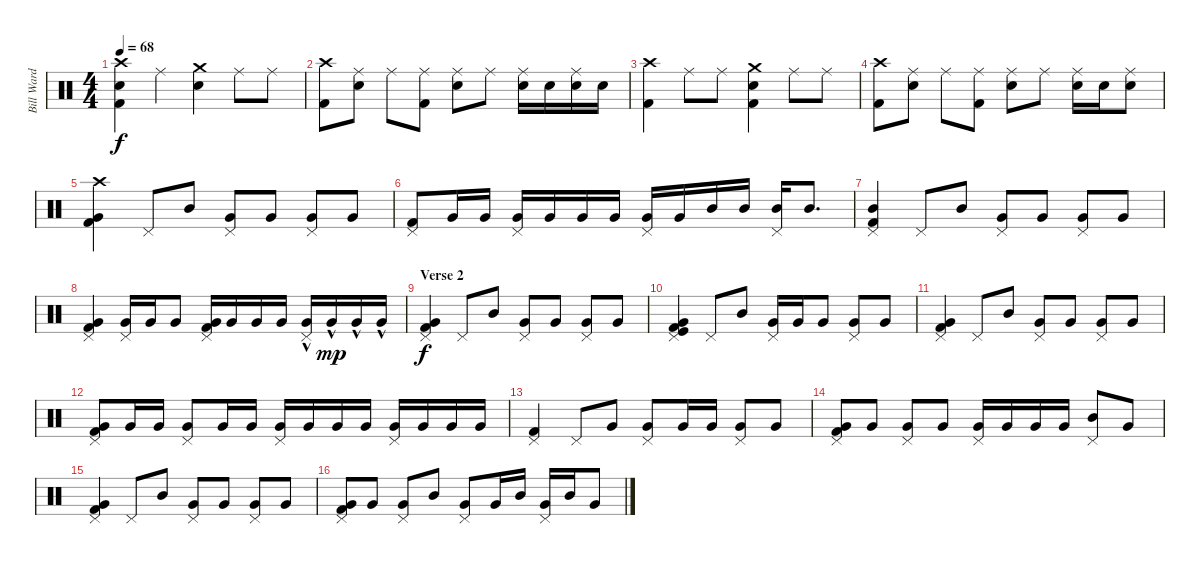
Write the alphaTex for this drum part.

\track ("Bill Ward - Drums" "Bill Ward ") {instrument percussion}
\staff {score}
\articulation defaults
\ts (4 4)
\tempo 68
\clef neutral
\ks c
("Crash high (hit)" "Snare (hit) 2" "Kick (hit) 2").4{dy f} "Ride (middle)".4 ("Crash medium (hit)" "Snare (hit) 2").4 "Ride (middle)".8 "Ride (middle)".8 |
("Crash high (hit)" "Kick (hit) 2").8 ("Ride (middle)" "Snare (hit) 2").8 "Ride (middle)".8 ("Ride (middle)" "Kick (hit) 2").8 ("Ride (middle)" "Snare (hit) 2").8 "Ride (middle)".8 ("Ride (middle)" "Snare (hit) 2").16 "Snare (hit) 2".16 ("Ride (middle)" "Snare (hit) 2").16 "Snare (hit) 2".16 |
("Crash high (hit)" "Kick (hit) 2").4 "Ride (middle)".8 "Ride (middle)".8 ("Crash medium (hit)" "Snare (hit) 2" "Kick (hit) 2").4 "Ride (middle)".8 "Ride (middle)".8 |
("Crash high (hit)" "Kick (hit) 2").8 ("Ride (middle)" "Snare (hit) 2").8 "Ride (middle)".8 ("Ride (middle)" "Kick (hit) 2").8 ("Ride (middle)" "Snare (hit) 2").8 "Ride (middle)".8 ("Ride (middle)" "Snare (hit) 2").16 "Snare (hit) 2".16 ("Ride (middle)" "Snare (hit) 2").8 |
("Crash high (hit)" "Very Low Tom (hit)" "Kick (hit) 2").4 "Pedal Hi-Hat (hit)".8 "Mid Tom (hit)".8 ("Pedal Hi-Hat (hit)" "Very Low Tom (hit)").8 "Very Low Tom (hit)".8 ("Pedal Hi-Hat (hit)" "Very Low Tom (hit)").8 "Very Low Tom (hit)".8 |
("Pedal Hi-Hat (hit)" "Kick (hit) 2").8 "Very Low Tom (hit)".16 "Very Low Tom (hit)".16 ("Pedal Hi-Hat (hit)" "Very Low Tom (hit)").16 "Very Low Tom (hit)".16 "Very Low Tom (hit)".16 "Very Low Tom (hit)".16 ("Pedal Hi-Hat (hit)" "Very Low Tom (hit)").16 "Very Low Tom (hit)".16 "Mid Tom (hit)".16 "Mid Tom (hit)".16 ("Pedal Hi-Hat (hit)" "Mid Tom (hit)").16 "Mid Tom (hit)".8{d} |
("Pedal Hi-Hat (hit)" "Mid Tom (hit)" "Kick (hit) 2").4 "Pedal Hi-Hat (hit)".8 "Mid Tom (hit)".8 ("Pedal Hi-Hat (hit)" "Very Low Tom (hit)").8 "Very Low Tom (hit)".8 ("Pedal Hi-Hat (hit)" "Very Low Tom (hit)").8 "Very Low Tom (hit)".8 |
("Pedal Hi-Hat (hit)" "Very Low Tom (hit)" "Kick (hit) 2").4 ("Pedal Hi-Hat (hit)" "Very Low Tom (hit)").16 "Very Low Tom (hit)".16 "Very Low Tom (hit)".8 ("Pedal Hi-Hat (hit)" "Very Low Tom (hit)" "Kick (hit) 2").16 "Very Low Tom (hit)".16 "Very Low Tom (hit)".16 "Very Low Tom (hit)".16 ("Pedal Hi-Hat (hit)" "Very Low Tom (hit)"{hac}).16 "Very Low Tom (hit)"{hac}.16{dy mp} "Very Low Tom (hit)"{hac}.16 "Very Low Tom (hit)"{hac}.16 |
\section ("" "Verse 2")
("Pedal Hi-Hat (hit)" "Very Low Tom (hit)" "Kick (hit) 2").4{dy f} "Pedal Hi-Hat (hit)".8 "Mid Tom (hit)".8 ("Pedal Hi-Hat (hit)" "Very Low Tom (hit)").8 "Very Low Tom (hit)".8 ("Pedal Hi-Hat (hit)" "Very Low Tom (hit)").8 "Very Low Tom (hit)".8 |
("Pedal Hi-Hat (hit)" "Kick (hit) 2" "Kick (hit)" "Very Low Tom (hit)").4 "Pedal Hi-Hat (hit)".8 "Mid Tom (hit)".8 ("Pedal Hi-Hat (hit)" "Very Low Tom (hit)").16 "Very Low Tom (hit)".16 "Very Low Tom (hit)".8 ("Pedal Hi-Hat (hit)" "Very Low Tom (hit)").8 "Very Low Tom (hit)".8 |
("Pedal Hi-Hat (hit)" "Very Low Tom (hit)" "Kick (hit) 2").4 "Pedal Hi-Hat (hit)".8 "Mid Tom (hit)".8 ("Pedal Hi-Hat (hit)" "Very Low Tom (hit)").8 "Very Low Tom (hit)".8 ("Pedal Hi-Hat (hit)" "Very Low Tom (hit)").8 "Very Low Tom (hit)".8 |
("Pedal Hi-Hat (hit)" "Very Low Tom (hit)" "Kick (hit) 2").8 "Very Low Tom (hit)".16 "Very Low Tom (hit)".16 ("Pedal Hi-Hat (hit)" "Very Low Tom (hit)").8 "Very Low Tom (hit)".16 "Very Low Tom (hit)".16 ("Pedal Hi-Hat (hit)" "Very Low Tom (hit)").16 "Very Low Tom (hit)".16 "Very Low Tom (hit)".16 "Very Low Tom (hit)".16 ("Pedal Hi-Hat (hit)" "Very Low Tom (hit)").16 "Very Low Tom (hit)".16 "Very Low Tom (hit)".16 "Very Low Tom (hit)".16 |
("Pedal Hi-Hat (hit)" "Kick (hit) 2").4 "Pedal Hi-Hat (hit)".8 "Very Low Tom (hit)".8 ("Pedal Hi-Hat (hit)" "Very Low Tom (hit)").8 "Very Low Tom (hit)".16 "Very Low Tom (hit)".16 ("Pedal Hi-Hat (hit)" "Very Low Tom (hit)").8 "Very Low Tom (hit)".8 |
("Pedal Hi-Hat (hit)" "Very Low Tom (hit)" "Kick (hit) 2").8 "Very Low Tom (hit)".8 ("Pedal Hi-Hat (hit)" "Very Low Tom (hit)").8 "Very Low Tom (hit)".8 ("Pedal Hi-Hat (hit)" "Very Low Tom (hit)").16 "Very Low Tom (hit)".16 "Very Low Tom (hit)".16 "Very Low Tom (hit)".16 ("Pedal Hi-Hat (hit)" "Mid Tom (hit)").8 "Very Low Tom (hit)".8 |
("Pedal Hi-Hat (hit)" "Very Low Tom (hit)" "Kick (hit) 2").4 "Pedal Hi-Hat (hit)".8 "Mid Tom (hit)".8 ("Pedal Hi-Hat (hit)" "Very Low Tom (hit)").8 "Very Low Tom (hit)".8 ("Pedal Hi-Hat (hit)" "Very Low Tom (hit)").8 "Very Low Tom (hit)".8 |
("Pedal Hi-Hat (hit)" "Very Low Tom (hit)" "Kick (hit) 2").8 "Very Low Tom (hit)".8 ("Pedal Hi-Hat (hit)" "Very Low Tom (hit)").8 "Mid Tom (hit)".8 ("Pedal Hi-Hat (hit)" "Very Low Tom (hit)").8 "Very Low Tom (hit)".16 "Mid Tom (hit)".16 ("Pedal Hi-Hat (hit)" "Very Low Tom (hit)").16 "Mid Tom (hit)".16 "Very Low Tom (hit)".8
